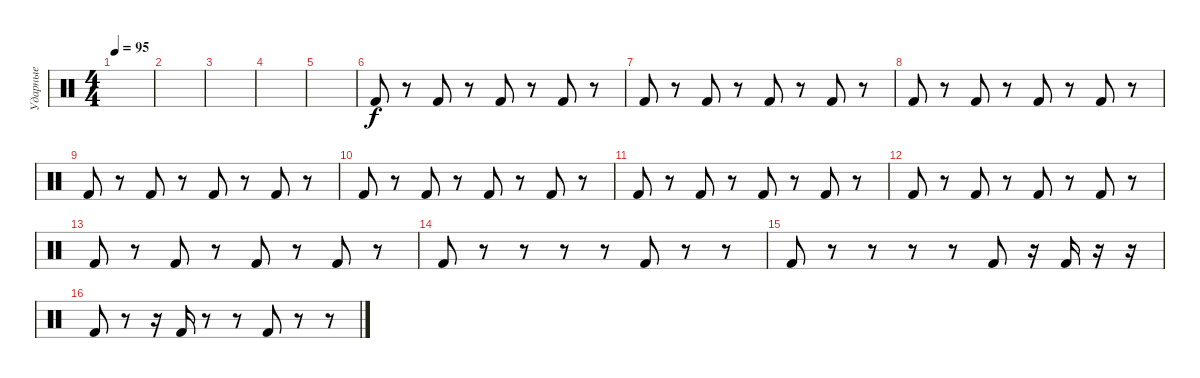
\track ("Ударные" "Ударные") {instrument percussion}
\staff {score}
\articulation defaults
\ts (4 4)
\tempo 95
\clef neutral
\ks c
|
|
|
|
|
"Kick (hit) 2".8 r.8 "Kick (hit) 2".8 r.8 "Kick (hit) 2".8 r.8 "Kick (hit) 2".8 r.8 |
"Kick (hit) 2".8 r.8 "Kick (hit) 2".8 r.8 "Kick (hit) 2".8 r.8 "Kick (hit) 2".8 r.8 |
"Kick (hit) 2".8 r.8 "Kick (hit) 2".8 r.8 "Kick (hit) 2".8 r.8 "Kick (hit) 2".8 r.8 |
"Kick (hit) 2".8 r.8 "Kick (hit) 2".8 r.8 "Kick (hit) 2".8 r.8 "Kick (hit) 2".8 r.8 |
"Kick (hit) 2".8 r.8 "Kick (hit) 2".8 r.8 "Kick (hit) 2".8 r.8 "Kick (hit) 2".8 r.8 |
"Kick (hit) 2".8 r.8 "Kick (hit) 2".8 r.8 "Kick (hit) 2".8 r.8 "Kick (hit) 2".8 r.8 |
"Kick (hit) 2".8 r.8 "Kick (hit) 2".8 r.8 "Kick (hit) 2".8 r.8 "Kick (hit) 2".8 r.8 |
"Kick (hit) 2".8 r.8 "Kick (hit) 2".8 r.8 "Kick (hit) 2".8 r.8 "Kick (hit) 2".8 r.8 |
"Kick (hit) 2".8 r.8 r.8 r.8 r.8 "Kick (hit) 2".8 r.8 r.8 |
"Kick (hit) 2".8 r.8 r.8 r.8 r.8 "Kick (hit) 2".8 r.16 "Kick (hit) 2".16 r.16 r.16 |
"Kick (hit) 2".8 r.8 r.16 "Kick (hit) 2".16 r.8 r.8 "Kick (hit) 2".8 r.8 r.8
